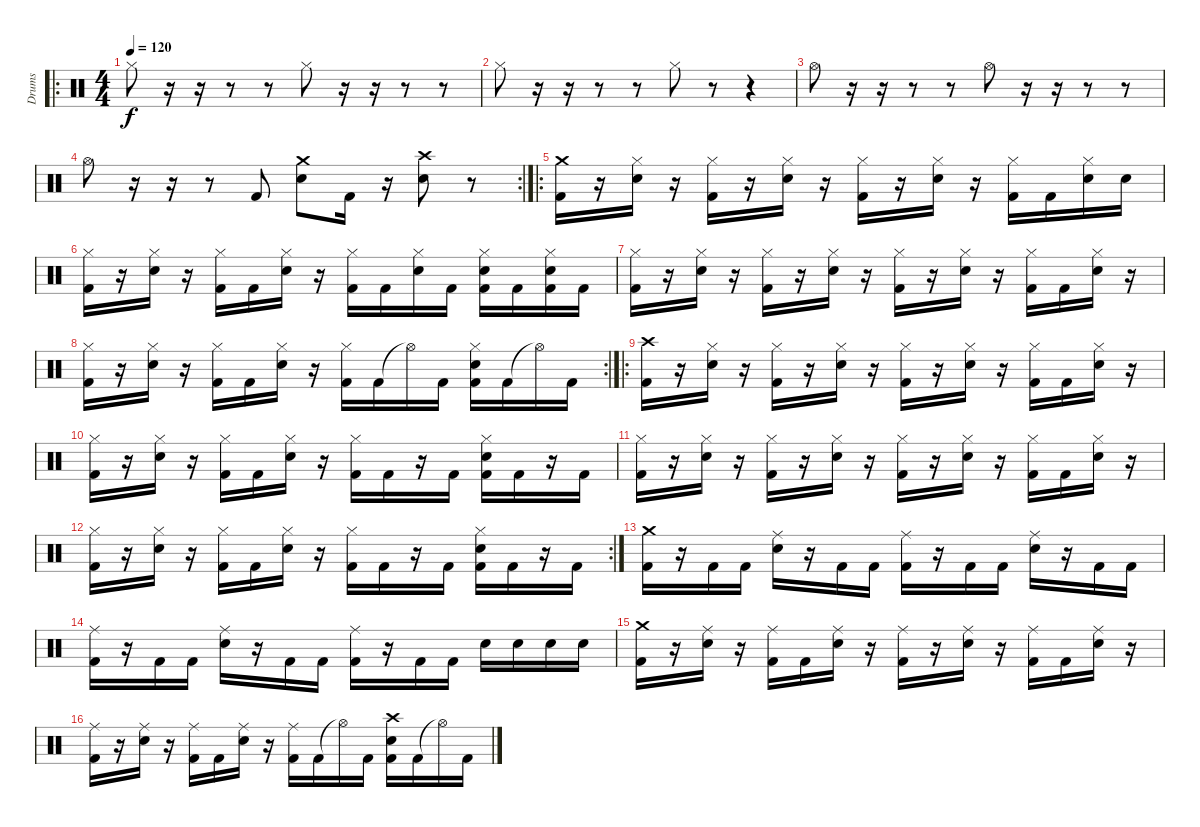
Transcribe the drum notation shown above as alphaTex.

\track ("Drums" "Drums") {instrument percussion}
\staff {score}
\articulation defaults
\ro
\ts (4 4)
\tempo 120
\clef neutral
\ks c "Hi-Hat (closed)".8{dy f}
r.16 r.16 r.8 r.8 "Hi-Hat (closed)".8 r.16 r.16 r.8 r.8 |
"Hi-Hat (closed)".8 r.16 r.16 r.8 r.8 "Hi-Hat (closed)".8 r.8 r.4{volume 16} |
"Hi-Hat (open)".8 r.16 r.16 r.8 r.8 "Hi-Hat (open)".8 r.16 r.16 r.8 r.8 |
\rc 2 "Hi-Hat (open)".8
r.16 r.16 r.8 "Kick (hit) 2".8 ("Electric Snare (hit)" "Crash medium (hit)").8 "Kick (hit) 2".16 r.16 ("Electric Snare (hit)" "Crash high (hit)").8 r.8 |
\ro
("Kick (hit) 2" "Crash medium (hit)").16 r.16 ("Electric Snare (hit)" "Hi-Hat (closed)").16 r.16 ("Kick (hit) 2" "Hi-Hat (closed)").16 r.16 ("Electric Snare (hit)" "Hi-Hat (closed)").16 r.16 ("Kick (hit) 2" "Hi-Hat (closed)").16 r.16 ("Electric Snare (hit)" "Hi-Hat (closed)").16 r.16 ("Kick (hit) 2" "Hi-Hat (closed)").16 "Kick (hit) 2".16 ("Electric Snare (hit)" "Hi-Hat (closed)").16 "Snare (hit)".16 |
("Kick (hit) 2" "Hi-Hat (closed)").16 r.16 ("Electric Snare (hit)" "Hi-Hat (closed)").16 r.16 ("Kick (hit) 2" "Hi-Hat (closed)").16 "Kick (hit) 2".16 ("Electric Snare (hit)" "Hi-Hat (closed)").16 r.16 ("Kick (hit) 2" "Hi-Hat (closed)").16 "Kick (hit) 2".16 ("Electric Snare (hit)" "Hi-Hat (closed)").16 "Kick (hit) 2".16 ("Kick (hit) 2" "Electric Snare (hit)" "Hi-Hat (closed)").16 "Kick (hit) 2".16 ("Kick (hit) 2" "Electric Snare (hit)" "Hi-Hat (closed)").16 "Kick (hit) 2".16 |
("Kick (hit) 2" "Hi-Hat (closed)").16 r.16 ("Electric Snare (hit)" "Hi-Hat (closed)").16 r.16 ("Kick (hit) 2" "Hi-Hat (closed)").16 r.16 ("Electric Snare (hit)" "Hi-Hat (closed)").16 r.16 ("Kick (hit) 2" "Hi-Hat (closed)").16 r.16 ("Electric Snare (hit)" "Hi-Hat (closed)").16 r.16 ("Kick (hit) 2" "Hi-Hat (closed)").16 "Kick (hit) 2".16 ("Electric Snare (hit)" "Hi-Hat (closed)").16 r.16 |
\rc 2
("Kick (hit) 2" "Hi-Hat (closed)").16 r.16 ("Electric Snare (hit)" "Hi-Hat (closed)").16 r.16 ("Kick (hit) 2" "Hi-Hat (closed)").16 "Kick (hit) 2".16 ("Electric Snare (hit)" "Hi-Hat (closed)").16 r.16 ("Kick (hit) 2" "Hi-Hat (closed)").16 "Kick (hit) 2".16 "Hi-Hat (open)"{t}.16 "Kick (hit) 2".16 ("Kick (hit) 2" "Electric Snare (hit)" "Hi-Hat (closed)").16 "Kick (hit) 2".16 "Hi-Hat (open)"{t}.16 "Kick (hit) 2".16 |
\ro
("Kick (hit) 2" "Crash high (hit)").16 r.16 ("Electric Snare (hit)" "Hi-Hat (closed)").16 r.16 ("Kick (hit) 2" "Hi-Hat (closed)").16 r.16 ("Electric Snare (hit)" "Hi-Hat (closed)").16 r.16 ("Kick (hit) 2" "Hi-Hat (closed)").16 r.16 ("Electric Snare (hit)" "Hi-Hat (closed)").16 r.16 ("Kick (hit) 2" "Hi-Hat (closed)").16 "Kick (hit) 2".16 ("Electric Snare (hit)" "Hi-Hat (closed)").16 r.16 |
("Kick (hit) 2" "Hi-Hat (closed)").16 r.16 ("Electric Snare (hit)" "Hi-Hat (closed)").16 r.16 ("Kick (hit) 2" "Hi-Hat (closed)").16 "Kick (hit) 2".16 ("Electric Snare (hit)" "Hi-Hat (closed)").16 r.16 ("Kick (hit) 2" "Hi-Hat (closed)").16 "Kick (hit) 2".16 r.16 "Kick (hit) 2".16 ("Kick (hit) 2" "Electric Snare (hit)" "Hi-Hat (closed)").16 "Kick (hit) 2".16 r.16 "Kick (hit) 2".16 |
("Kick (hit) 2" "Hi-Hat (closed)").16 r.16 ("Electric Snare (hit)" "Hi-Hat (closed)").16 r.16 ("Kick (hit) 2" "Hi-Hat (closed)").16 r.16 ("Electric Snare (hit)" "Hi-Hat (closed)").16 r.16 ("Kick (hit) 2" "Hi-Hat (closed)").16 r.16 ("Electric Snare (hit)" "Hi-Hat (closed)").16 r.16 ("Kick (hit) 2" "Hi-Hat (closed)").16 "Kick (hit) 2".16 ("Electric Snare (hit)" "Hi-Hat (closed)").16 r.16 |
\rc 2
("Kick (hit) 2" "Hi-Hat (closed)").16 r.16 ("Electric Snare (hit)" "Hi-Hat (closed)").16 r.16 ("Kick (hit) 2" "Hi-Hat (closed)").16 "Kick (hit) 2".16 ("Electric Snare (hit)" "Hi-Hat (closed)").16 r.16 ("Kick (hit) 2" "Hi-Hat (closed)").16 "Kick (hit) 2".16 r.16 "Kick (hit) 2".16 ("Kick (hit) 2" "Electric Snare (hit)" "Hi-Hat (closed)").16 "Kick (hit) 2".16 r.16 "Kick (hit) 2".16 |
("Kick (hit) 2" "Crash medium (hit)").16 r.16 "Kick (hit) 2".16 "Kick (hit) 2".16 ("Electric Snare (hit)" "Ride (middle)").16 r.16 "Kick (hit) 2".16 "Kick (hit) 2".16 ("Kick (hit) 2" "Ride (middle)").16 r.16 "Kick (hit) 2".16 "Kick (hit) 2".16 ("Electric Snare (hit)" "Ride (middle)").16 r.16 "Kick (hit) 2".16 "Kick (hit) 2".16 |
("Kick (hit) 2" "Ride (middle)").16 r.16 "Kick (hit) 2".16 "Kick (hit) 2".16 ("Electric Snare (hit)" "Ride (middle)").16 r.16 "Kick (hit) 2".16 "Kick (hit) 2".16 ("Kick (hit) 2" "Ride (middle)").16 r.16 "Kick (hit) 2".16 "Kick (hit) 2".16 "Electric Snare (hit)".16 "Electric Snare (hit)".16 "Electric Snare (hit)".16 "Electric Snare (hit)".16 |
("Kick (hit) 2" "Crash medium (hit)").16 r.16 ("Electric Snare (hit)" "Ride (middle)").16 r.16 ("Kick (hit) 2" "Ride (middle)").16 "Kick (hit) 2".16 ("Electric Snare (hit)" "Ride (middle)").16 r.16 ("Kick (hit) 2" "Ride (middle)").16 r.16 ("Electric Snare (hit)" "Ride (middle)").16 r.16 ("Kick (hit) 2" "Ride (middle)").16 "Kick (hit) 2".16 ("Electric Snare (hit)" "Ride (middle)").16 r.16 |
("Kick (hit) 2" "Ride (middle)").16 r.16 ("Electric Snare (hit)" "Ride (middle)").16 r.16 ("Kick (hit) 2" "Ride (middle)").16 "Kick (hit) 2".16 ("Electric Snare (hit)" "Ride (middle)").16 r.16 ("Kick (hit) 2" "Ride (middle)").16 "Kick (hit) 2".16 "Hi-Hat (open)"{t}.16 "Kick (hit) 2".16 ("Kick (hit) 2" "Electric Snare (hit)" "Crash high (hit)").16 "Kick (hit) 2".16 "Hi-Hat (open)"{t}.16 "Kick (hit) 2".16
